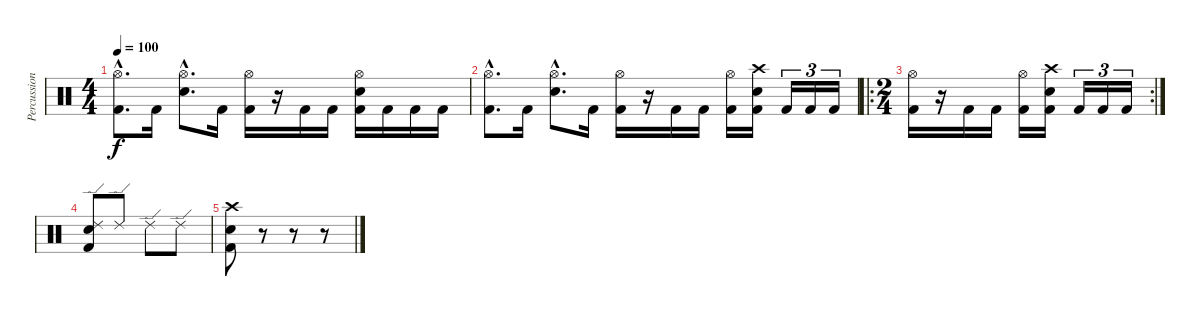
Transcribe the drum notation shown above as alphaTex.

\track ("Percussion" "Percussion") {instrument percussion}
\staff {score}
\articulation defaults
\ts (4 4)
\tempo 100
\clef neutral
\ks c
("Hi-Hat (open)"{hac} "Kick (hit) 2"{hac}).8{d dy f} "Kick (hit) 2".16 ("Hi-Hat (open)"{hac} "Electric Snare (hit)"{hac}).8{d} "Kick (hit) 2".16 ("Hi-Hat (open)" "Kick (hit) 2").16 r.16 "Kick (hit) 2".16 "Kick (hit) 2".16 ("Hi-Hat (open)" "Electric Snare (hit)" "Kick (hit) 2").16 "Kick (hit) 2".16 "Kick (hit) 2".16 "Kick (hit) 2".16 |
("Hi-Hat (open)"{hac} "Kick (hit) 2"{hac}).8{d} "Kick (hit) 2".16 ("Hi-Hat (open)"{hac} "Electric Snare (hit)"{hac}).8{d} "Kick (hit) 2".16 ("Hi-Hat (open)" "Kick (hit) 2").16 r.16 "Kick (hit) 2".16 "Kick (hit) 2".16 ("Hi-Hat (open)" "Kick (hit) 2").16 ("Crash high (hit)" "Electric Snare (hit)" "Kick (hit) 2").16 "Kick (hit) 2".16{tu (3 2)} "Kick (hit) 2".16{tu (3 2)} "Kick (hit) 2".16{tu (3 2)} |
\ro
\rc 2
\ts (2 4)
("Hi-Hat (open)" "Kick (hit) 2").16 r.16 "Kick (hit) 2".16 "Kick (hit) 2".16 ("Hi-Hat (open)" "Kick (hit) 2").16 ("Crash high (hit)" "Electric Snare (hit)" "Kick (hit) 2").16 "Kick (hit) 2".16{tu (3 2)} "Kick (hit) 2".16{tu (3 2)} "Kick (hit) 2".16{tu (3 2)} |
("Ride (edge) 2" "Electric Snare (hit)" "Kick (hit) 2").8 "Ride (edge) 2".8 "Ride (edge) 2".8 "Ride (edge) 2".8 |
("Crash high (hit)" "Electric Snare (hit)" "Kick (hit) 2").8 r.8 r.8 r.8
